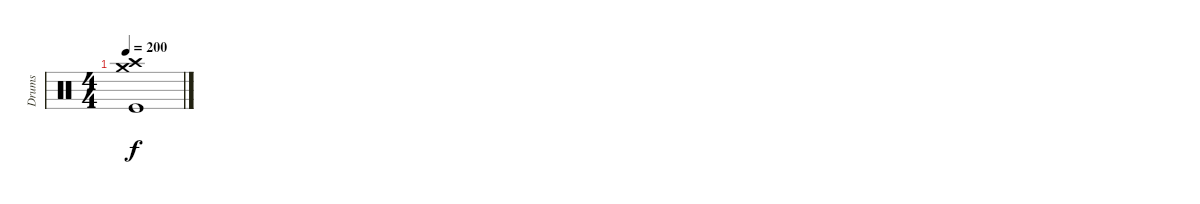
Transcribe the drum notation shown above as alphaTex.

\track ("Drums" "Drums") {instrument percussion}
\staff {score}
\articulation defaults
\ts (4 4)
\tempo 200
\clef neutral
\ks c
("Crash medium (hit)" "Crash high (hit)" "Kick (hit)").1{dy f}
